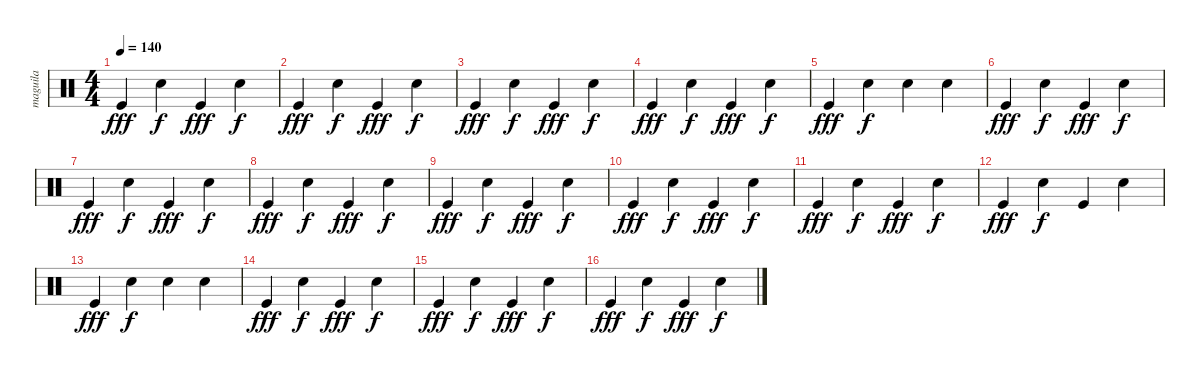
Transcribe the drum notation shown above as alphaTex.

\track ("maguila" "maguila") {instrument percussion}
\staff {score}
\articulation defaults
\ts (4 4)
\tempo 140
\clef neutral
\ks c "Kick (hit)".4{dy fff} "Snare (hit) 2".4{dy f} "Kick (hit)".4{dy fff} "Snare (hit) 2".4{dy f}
|
"Kick (hit)".4{dy fff} "Snare (hit) 2".4{dy f} "Kick (hit)".4{dy fff} "Snare (hit) 2".4{dy f} |
"Kick (hit)".4{dy fff} "Snare (hit) 2".4{dy f} "Kick (hit)".4{dy fff} "Snare (hit) 2".4{dy f} |
"Kick (hit)".4{dy fff} "Snare (hit) 2".4{dy f} "Kick (hit)".4{dy fff} "Snare (hit) 2".4{dy f} |
"Kick (hit)".4{dy fff} "Snare (hit) 2".4{dy f} "Snare (hit) 2".4 "Snare (hit) 2".4 |
"Kick (hit)".4{dy fff} "Snare (hit) 2".4{dy f} "Kick (hit)".4{dy fff} "Snare (hit) 2".4{dy f} |
"Kick (hit)".4{dy fff} "Snare (hit) 2".4{dy f} "Kick (hit)".4{dy fff} "Snare (hit) 2".4{dy f} |
"Kick (hit)".4{dy fff} "Snare (hit) 2".4{dy f} "Kick (hit)".4{dy fff} "Snare (hit) 2".4{dy f} |
"Kick (hit)".4{dy fff} "Snare (hit) 2".4{dy f} "Kick (hit)".4{dy fff} "Snare (hit) 2".4{dy f} |
"Kick (hit)".4{dy fff} "Snare (hit) 2".4{dy f} "Kick (hit)".4{dy fff} "Snare (hit) 2".4{dy f} |
"Kick (hit)".4{dy fff} "Snare (hit) 2".4{dy f} "Kick (hit)".4{dy fff} "Snare (hit) 2".4{dy f} |
"Kick (hit)".4{dy fff} "Snare (hit) 2".4{dy f} "Kick (hit)".4 "Snare (hit) 2".4 |
"Kick (hit)".4{dy fff} "Snare (hit) 2".4{dy f} "Snare (hit) 2".4 "Snare (hit) 2".4 |
"Kick (hit)".4{dy fff} "Snare (hit) 2".4{dy f} "Kick (hit)".4{dy fff} "Snare (hit) 2".4{dy f} |
"Kick (hit)".4{dy fff} "Snare (hit) 2".4{dy f} "Kick (hit)".4{dy fff} "Snare (hit) 2".4{dy f} |
"Kick (hit)".4{dy fff} "Snare (hit) 2".4{dy f} "Kick (hit)".4{dy fff} "Snare (hit) 2".4{dy f}
